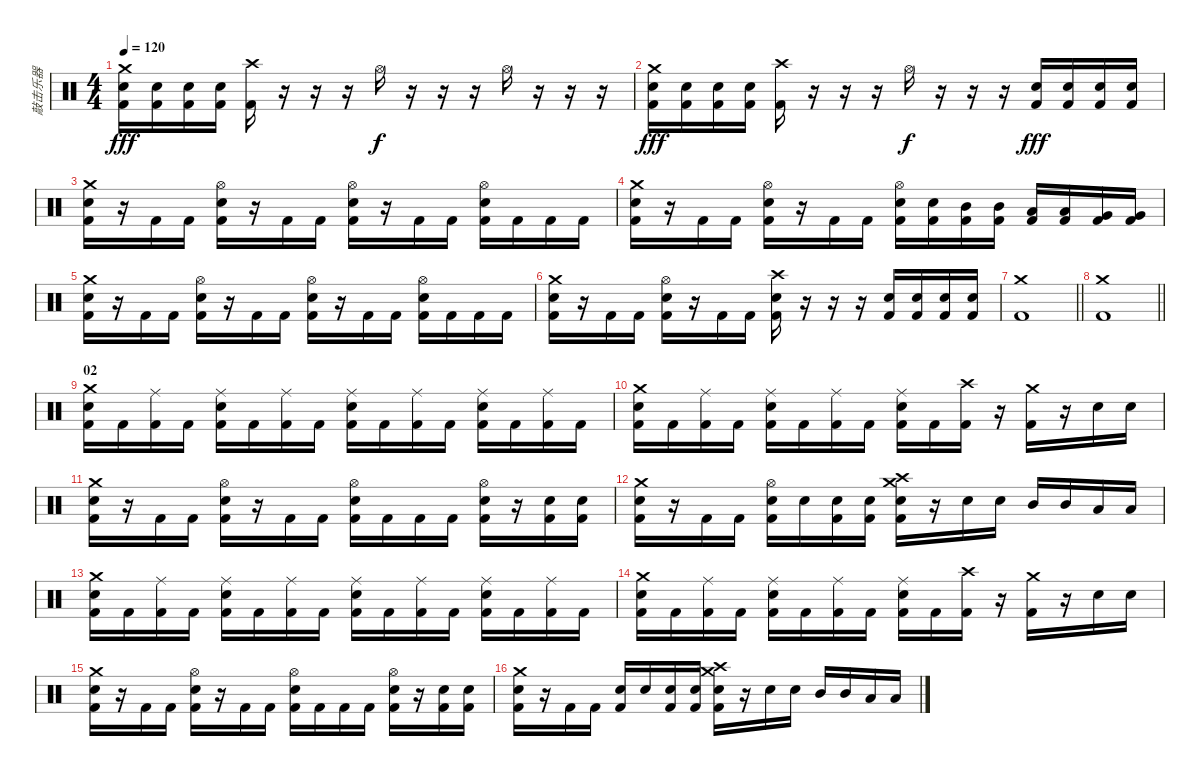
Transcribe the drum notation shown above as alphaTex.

\track ("敲击乐器" "敲击乐器") {instrument percussion}
\staff {score}
\articulation defaults
\ts (4 4)
\tempo 120
\clef neutral
\ks c
("Crash medium (hit)" "Snare (hit) 2" "Kick (hit) 2").16{dy fff} ("Snare (hit) 2" "Kick (hit) 2").16 ("Snare (hit) 2" "Kick (hit) 2").16 ("Snare (hit) 2" "Kick (hit) 2").16 ("Crash high (hit)" "Kick (hit) 2").16 r.16 r.16 r.16 "Hi-Hat (open)".16{dy f} r.16 r.16 r.16 "Hi-Hat (open)".16 r.16 r.16 r.16 |
("Crash medium (hit)" "Snare (hit) 2" "Kick (hit) 2").16{dy fff} ("Snare (hit) 2" "Kick (hit) 2").16 ("Snare (hit) 2" "Kick (hit) 2").16 ("Snare (hit) 2" "Kick (hit) 2").16 ("Crash high (hit)" "Kick (hit) 2").16 r.16 r.16 r.16 "Hi-Hat (open)".16{dy f} r.16 r.16 r.16 ("Snare (hit) 2" "Kick (hit) 2").16{dy fff} ("Snare (hit) 2" "Kick (hit) 2").16 ("Snare (hit) 2" "Kick (hit) 2").16 ("Snare (hit) 2" "Kick (hit) 2").16 |
("Crash medium (hit)" "Snare (hit) 2" "Kick (hit) 2").16 r.16 "Kick (hit) 2".16 "Kick (hit) 2".16 ("Hi-Hat (open)" "Snare (hit) 2" "Kick (hit) 2").16 r.16 "Kick (hit) 2".16 "Kick (hit) 2".16 ("Hi-Hat (open)" "Snare (hit) 2" "Kick (hit) 2").16 r.16 "Kick (hit) 2".16 "Kick (hit) 2".16 ("Hi-Hat (open)" "Snare (hit) 2" "Kick (hit) 2").16 "Kick (hit) 2".16 "Kick (hit) 2".16 "Kick (hit) 2".16 |
("Crash medium (hit)" "Snare (hit) 2" "Kick (hit) 2").16 r.16 "Kick (hit) 2".16 "Kick (hit) 2".16 ("Hi-Hat (open)" "Snare (hit) 2" "Kick (hit) 2").16 r.16 "Kick (hit) 2".16 "Kick (hit) 2".16 ("Hi-Hat (open)" "Snare (hit) 2" "Kick (hit) 2").16 ("Snare (hit) 2" "Kick (hit) 2").16 ("Mid Tom (hit)" "Kick (hit) 2").16 ("Mid Tom (hit)" "Kick (hit) 2").16 ("Low Tom (hit)" "Kick (hit) 2").16 ("Low Tom (hit)" "Kick (hit) 2").16 ("Very Low Tom (hit)" "Kick (hit) 2").16 ("Very Low Tom (hit)" "Kick (hit) 2").16 |
("Crash medium (hit)" "Snare (hit) 2" "Kick (hit) 2").16 r.16 "Kick (hit) 2".16 "Kick (hit) 2".16 ("Hi-Hat (open)" "Snare (hit) 2" "Kick (hit) 2").16 r.16 "Kick (hit) 2".16 "Kick (hit) 2".16 ("Hi-Hat (open)" "Snare (hit) 2" "Kick (hit) 2").16 r.16 "Kick (hit) 2".16 "Kick (hit) 2".16 ("Hi-Hat (open)" "Snare (hit) 2" "Kick (hit) 2").16 "Kick (hit) 2".16 "Kick (hit) 2".16 "Kick (hit) 2".16 |
("Crash medium (hit)" "Snare (hit) 2" "Kick (hit) 2").16 r.16 "Kick (hit) 2".16 "Kick (hit) 2".16 ("Hi-Hat (open)" "Snare (hit) 2" "Kick (hit) 2").16 r.16 "Kick (hit) 2".16 "Kick (hit) 2".16 ("Crash high (hit)" "Snare (hit) 2" "Kick (hit) 2").16 r.16 r.16 r.16 ("Snare (hit) 2" "Kick (hit) 2").16 ("Snare (hit) 2" "Kick (hit) 2").16 ("Snare (hit) 2" "Kick (hit) 2").16 ("Snare (hit) 2" "Kick (hit) 2").16 |
\barLineRight lightlight
("Crash medium (hit)" "Kick (hit) 2").1 |
\barLineRight lightlight
("Crash medium (hit)" "Kick (hit) 2").1 |
\section ("" "02")
("Crash medium (hit)" "Snare (hit) 2" "Kick (hit) 2").16 "Kick (hit) 2".16 ("Ride (middle)" "Kick (hit) 2").16 "Kick (hit) 2".16 ("Ride (middle)" "Snare (hit) 2" "Kick (hit) 2").16 "Kick (hit) 2".16 ("Ride (middle)" "Kick (hit) 2").16 "Kick (hit) 2".16 ("Ride (middle)" "Snare (hit) 2" "Kick (hit) 2").16 "Kick (hit) 2".16 ("Ride (middle)" "Kick (hit) 2").16 "Kick (hit) 2".16 ("Ride (middle)" "Snare (hit) 2" "Kick (hit) 2").16 "Kick (hit) 2".16 ("Ride (middle)" "Kick (hit) 2").16 "Kick (hit) 2".16 |
("Crash medium (hit)" "Snare (hit) 2" "Kick (hit) 2").16 "Kick (hit) 2".16 ("Ride (middle)" "Kick (hit) 2").16 "Kick (hit) 2".16 ("Ride (middle)" "Snare (hit) 2" "Kick (hit) 2").16 "Kick (hit) 2".16 ("Ride (middle)" "Kick (hit) 2").16 "Kick (hit) 2".16 ("Ride (middle)" "Snare (hit) 2" "Kick (hit) 2").16 "Kick (hit) 2".16 ("Crash high (hit)" "Kick (hit) 2").16 r.16 ("Crash medium (hit)" "Kick (hit) 2").16 r.16 "Snare (hit) 2".16 "Snare (hit) 2".16 |
("Crash medium (hit)" "Snare (hit) 2" "Kick (hit) 2").16 r.16 "Kick (hit) 2".16 "Kick (hit) 2".16 ("Hi-Hat (open)" "Snare (hit) 2" "Kick (hit) 2").16 r.16 "Kick (hit) 2".16 "Kick (hit) 2".16 ("Hi-Hat (open)" "Snare (hit) 2" "Kick (hit) 2").16 "Kick (hit) 2".16 "Kick (hit) 2".16 "Kick (hit) 2".16 ("Hi-Hat (open)" "Snare (hit) 2" "Kick (hit) 2").16 r.16 ("Snare (hit) 2" "Kick (hit) 2").16 ("Snare (hit) 2" "Kick (hit) 2").16 |
("Crash medium (hit)" "Snare (hit) 2" "Kick (hit) 2").16 r.16 "Kick (hit) 2".16 "Kick (hit) 2".16 ("Hi-Hat (open)" "Snare (hit) 2" "Kick (hit) 2").16 "Snare (hit) 2".16 ("Snare (hit) 2" "Kick (hit) 2").16 ("Snare (hit) 2" "Kick (hit) 2").16 ("Crash medium (hit)" "Crash high (hit)" "Snare (hit) 2" "Kick (hit) 2").16 r.16 "Snare (hit) 2".16 "Snare (hit) 2".16 "Mid Tom (hit)".16 "Mid Tom (hit)".16 "Low Tom (hit)".16 "Low Tom (hit)".16 |
("Crash medium (hit)" "Snare (hit) 2" "Kick (hit) 2").16 "Kick (hit) 2".16 ("Ride (middle)" "Kick (hit) 2").16 "Kick (hit) 2".16 ("Ride (middle)" "Snare (hit) 2" "Kick (hit) 2").16 "Kick (hit) 2".16 ("Ride (middle)" "Kick (hit) 2").16 "Kick (hit) 2".16 ("Ride (middle)" "Snare (hit) 2" "Kick (hit) 2").16 "Kick (hit) 2".16 ("Ride (middle)" "Kick (hit) 2").16 "Kick (hit) 2".16 ("Ride (middle)" "Snare (hit) 2" "Kick (hit) 2").16 "Kick (hit) 2".16 ("Ride (middle)" "Kick (hit) 2").16 "Kick (hit) 2".16 |
("Crash medium (hit)" "Snare (hit) 2" "Kick (hit) 2").16 "Kick (hit) 2".16 ("Ride (middle)" "Kick (hit) 2").16 "Kick (hit) 2".16 ("Ride (middle)" "Snare (hit) 2" "Kick (hit) 2").16 "Kick (hit) 2".16 ("Ride (middle)" "Kick (hit) 2").16 "Kick (hit) 2".16 ("Ride (middle)" "Snare (hit) 2" "Kick (hit) 2").16 "Kick (hit) 2".16 ("Crash high (hit)" "Kick (hit) 2").16 r.16 ("Crash medium (hit)" "Kick (hit) 2").16 r.16 "Snare (hit) 2".16 "Snare (hit) 2".16 |
("Crash medium (hit)" "Snare (hit) 2" "Kick (hit) 2").16 r.16 "Kick (hit) 2".16 "Kick (hit) 2".16 ("Hi-Hat (open)" "Snare (hit) 2" "Kick (hit) 2").16 r.16 "Kick (hit) 2".16 "Kick (hit) 2".16 ("Hi-Hat (open)" "Snare (hit) 2" "Kick (hit) 2").16 "Kick (hit) 2".16 "Kick (hit) 2".16 "Kick (hit) 2".16 ("Hi-Hat (open)" "Snare (hit) 2" "Kick (hit) 2").16 r.16 ("Snare (hit) 2" "Kick (hit) 2").16 ("Snare (hit) 2" "Kick (hit) 2").16 |
("Crash medium (hit)" "Snare (hit) 2" "Kick (hit) 2").16 r.16 "Kick (hit) 2".16 "Kick (hit) 2".16 ("Snare (hit) 2" "Kick (hit) 2").16 "Snare (hit) 2".16 ("Snare (hit) 2" "Kick (hit) 2").16 ("Snare (hit) 2" "Kick (hit) 2").16 ("Crash medium (hit)" "Crash high (hit)" "Snare (hit) 2" "Kick (hit) 2").16 r.16 "Snare (hit) 2".16 "Snare (hit) 2".16 "Mid Tom (hit)".16 "Mid Tom (hit)".16 "Low Tom (hit)".16 "Low Tom (hit)".16
